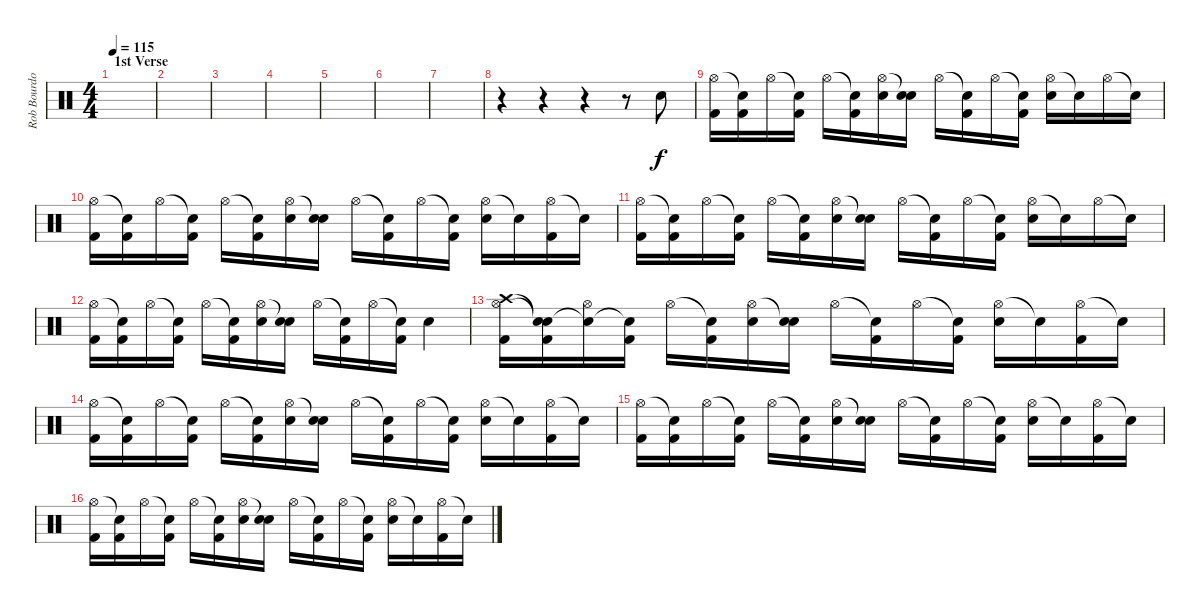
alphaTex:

\track ("Rob Bourdon (Drums)" "Rob Bourdo") {instrument percussion}
\staff {score}
\articulation defaults
\ts (4 4)
\section ("" "1st Verse")
\tempo 115
\clef neutral
\ks c
|
|
|
|
|
|
|
r.4 r.4 r.4 r.8 "Electric Snare (hit)".8 |
("Hi-Hat (open)" "Kick (hit) 2").16 ("Snare (hit)"{t} "Kick (hit) 2").16 "Hi-Hat (open)".16 ("Snare (hit)"{t} "Kick (hit) 2").16 "Hi-Hat (open)".16 ("Snare (hit)"{t} "Kick (hit) 2").16 ("Hi-Hat (open)" "Electric Snare (hit)").16 ("Snare (hit)"{t} "Electric Snare (hit)").16 "Hi-Hat (open)".16 ("Snare (hit)"{t} "Kick (hit) 2").16 "Hi-Hat (open)".16 ("Snare (hit)"{t} "Kick (hit) 2").16 ("Hi-Hat (open)" "Electric Snare (hit)").16 "Snare (hit)"{t}.16 "Hi-Hat (open)".16 "Snare (hit)"{t}.16 |
("Hi-Hat (open)" "Kick (hit) 2").16 ("Snare (hit)"{t} "Kick (hit) 2").16 "Hi-Hat (open)".16 ("Snare (hit)"{t} "Kick (hit) 2").16 "Hi-Hat (open)".16 ("Snare (hit)"{t} "Kick (hit) 2").16 ("Hi-Hat (open)" "Electric Snare (hit)").16 ("Snare (hit)"{t} "Electric Snare (hit)").16 "Hi-Hat (open)".16 ("Snare (hit)"{t} "Kick (hit) 2").16 "Hi-Hat (open)".16 ("Snare (hit)"{t} "Kick (hit) 2").16 ("Hi-Hat (open)" "Electric Snare (hit)").16 "Snare (hit)"{t}.16 ("Hi-Hat (open)" "Kick (hit) 2").16 "Snare (hit)"{t}.16 |
("Hi-Hat (open)" "Kick (hit) 2").16 ("Snare (hit)"{t} "Kick (hit) 2").16 "Hi-Hat (open)".16 ("Snare (hit)"{t} "Kick (hit) 2").16 "Hi-Hat (open)".16 ("Snare (hit)"{t} "Kick (hit) 2").16 ("Hi-Hat (open)" "Electric Snare (hit)").16 ("Snare (hit)"{t} "Electric Snare (hit)").16 "Hi-Hat (open)".16 ("Snare (hit)"{t} "Kick (hit) 2").16 "Hi-Hat (open)".16 ("Snare (hit)"{t} "Kick (hit) 2").16 ("Hi-Hat (open)" "Electric Snare (hit)").16 "Snare (hit)"{t}.16 "Hi-Hat (open)".16 "Snare (hit)"{t}.16 |
("Hi-Hat (open)" "Kick (hit) 2").16 ("Snare (hit)"{t} "Kick (hit) 2").16 "Hi-Hat (open)".16 ("Snare (hit)"{t} "Kick (hit) 2").16 "Hi-Hat (open)".16 ("Snare (hit)"{t} "Kick (hit) 2").16 ("Hi-Hat (open)" "Electric Snare (hit)").16 ("Snare (hit)"{t} "Electric Snare (hit)").16 "Hi-Hat (open)".16 ("Snare (hit)"{t} "Kick (hit) 2").16 "Hi-Hat (open)".16 ("Snare (hit)"{t} "Kick (hit) 2").16 "Electric Snare (hit)".4 |
("Crash high (hit)" "Hi-Hat (open)" "Kick (hit) 2").16 ("Snare (hit)"{t} "Snare (hit)"{t} "Kick (hit) 2").16 ("Snare (hit)"{t} "Hi-Hat (open)").16 ("Snare (hit)"{t} "Kick (hit) 2").16 "Hi-Hat (open)".16 ("Snare (hit)"{t} "Kick (hit) 2").16 ("Hi-Hat (open)" "Electric Snare (hit)").16 ("Snare (hit)"{t} "Electric Snare (hit)").16 "Hi-Hat (open)".16 ("Snare (hit)"{t} "Kick (hit) 2").16 "Hi-Hat (open)".16 ("Snare (hit)"{t} "Kick (hit) 2").16 ("Hi-Hat (open)" "Electric Snare (hit)").16 "Snare (hit)"{t}.16 ("Hi-Hat (open)" "Kick (hit) 2").16 "Snare (hit)"{t}.16 |
("Hi-Hat (open)" "Kick (hit) 2").16 ("Snare (hit)"{t} "Kick (hit) 2").16 "Hi-Hat (open)".16 ("Snare (hit)"{t} "Kick (hit) 2").16 "Hi-Hat (open)".16 ("Snare (hit)"{t} "Kick (hit) 2").16 ("Hi-Hat (open)" "Electric Snare (hit)").16 ("Snare (hit)"{t} "Electric Snare (hit)").16 "Hi-Hat (open)".16 ("Snare (hit)"{t} "Kick (hit) 2").16 "Hi-Hat (open)".16 ("Snare (hit)"{t} "Kick (hit) 2").16 ("Hi-Hat (open)" "Electric Snare (hit)").16 "Snare (hit)"{t}.16 ("Hi-Hat (open)" "Kick (hit) 2").16 "Snare (hit)"{t}.16 |
("Hi-Hat (open)" "Kick (hit) 2").16 ("Snare (hit)"{t} "Kick (hit) 2").16 "Hi-Hat (open)".16 ("Snare (hit)"{t} "Kick (hit) 2").16 "Hi-Hat (open)".16 ("Snare (hit)"{t} "Kick (hit) 2").16 ("Hi-Hat (open)" "Electric Snare (hit)").16 ("Snare (hit)"{t} "Electric Snare (hit)").16 "Hi-Hat (open)".16 ("Snare (hit)"{t} "Kick (hit) 2").16 "Hi-Hat (open)".16 ("Snare (hit)"{t} "Kick (hit) 2").16 ("Hi-Hat (open)" "Electric Snare (hit)").16 "Snare (hit)"{t}.16 ("Hi-Hat (open)" "Kick (hit) 2").16 "Snare (hit)"{t}.16 |
("Hi-Hat (open)" "Kick (hit) 2").16 ("Snare (hit)"{t} "Kick (hit) 2").16 "Hi-Hat (open)".16 ("Snare (hit)"{t} "Kick (hit) 2").16 "Hi-Hat (open)".16 ("Snare (hit)"{t} "Kick (hit) 2").16 ("Hi-Hat (open)" "Electric Snare (hit)").16 ("Snare (hit)"{t} "Electric Snare (hit)").16 "Hi-Hat (open)".16 ("Snare (hit)"{t} "Kick (hit) 2").16 "Hi-Hat (open)".16 ("Snare (hit)"{t} "Kick (hit) 2").16 ("Hi-Hat (open)" "Electric Snare (hit)").16 "Snare (hit)"{t}.16 ("Hi-Hat (open)" "Kick (hit) 2").16 "Snare (hit)"{t}.16
